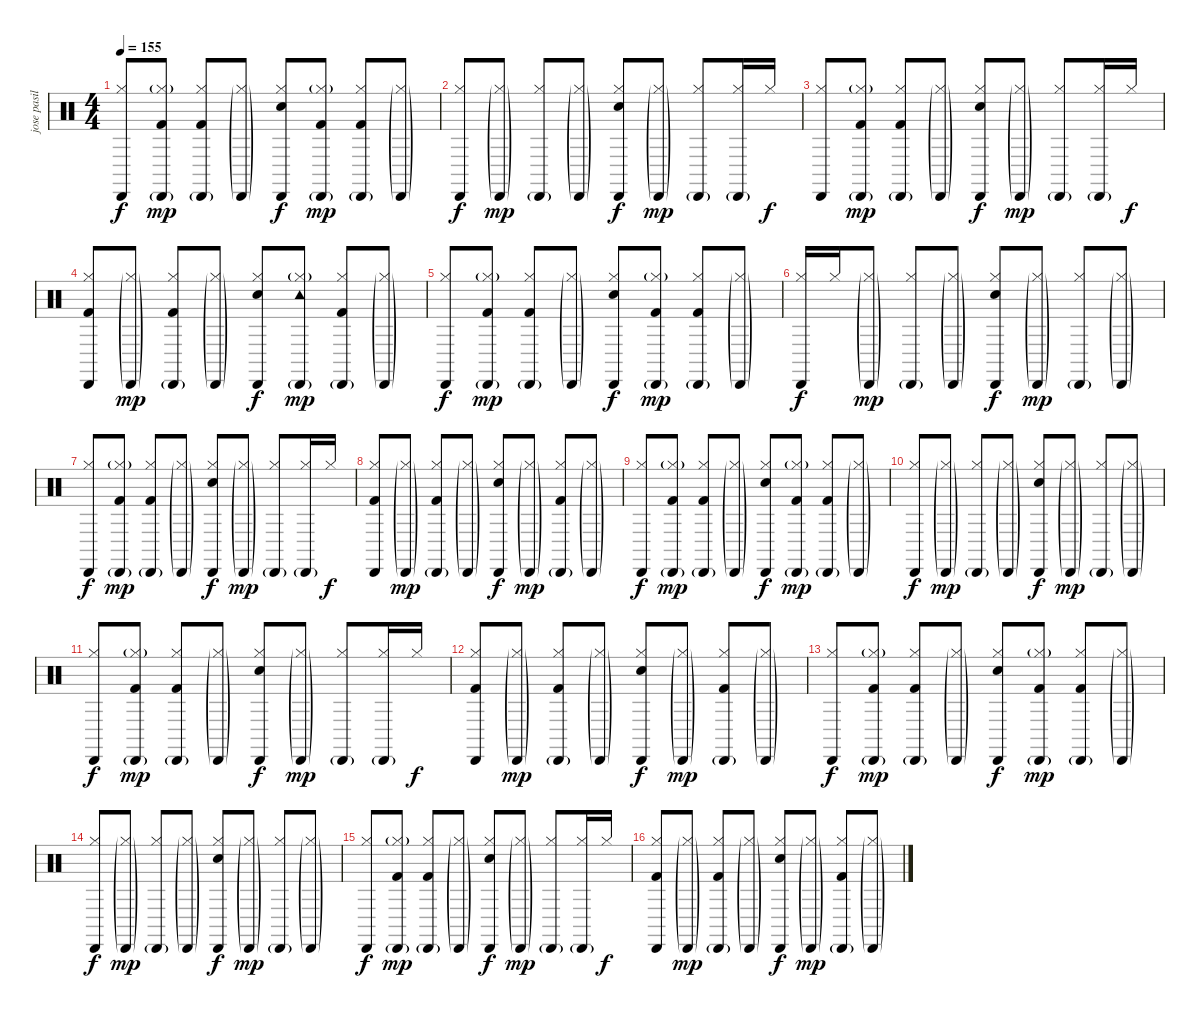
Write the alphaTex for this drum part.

\track ("jose pasillas" "jose pasil") {instrument percussion}
\staff {score}
\articulation defaults
\ts (4 4)
\tempo 155
\clef neutral
\ks c
("Cabasa (hit)" "Hi-Hat (closed)").8{dy f} ("Cabasa (hit)"{g} "Hi-Hat (closed)"{g} "Kick (hit) 2").8{dy mp} ("Cabasa (hit)"{g} "Hi-Hat (closed)" "Kick (hit) 2").8 ("Cabasa (hit)"{g} "Hi-Hat (closed)"{g}).8 ("Cabasa (hit)" "Hi-Hat (closed)" "Snare (hit) 2").8{dy f} ("Cabasa (hit)"{g} "Hi-Hat (closed)"{g} "Kick (hit) 2").8{dy mp} ("Cabasa (hit)"{g} "Hi-Hat (closed)" "Kick (hit) 2").8 ("Cabasa (hit)"{g} "Hi-Hat (closed)"{g}).8 |
("Cabasa (hit)" "Hi-Hat (closed)").8{dy f} ("Cabasa (hit)"{g} "Hi-Hat (closed)"{g}).8{dy mp} ("Cabasa (hit)"{g} "Hi-Hat (closed)").8 ("Cabasa (hit)"{g} "Hi-Hat (closed)"{g}).8 ("Cabasa (hit)" "Hi-Hat (closed)" "Snare (hit) 2").8{dy f} ("Cabasa (hit)"{g} "Hi-Hat (closed)"{g}).8{dy mp} ("Cabasa (hit)"{g} "Hi-Hat (closed)").8 ("Cabasa (hit)"{g} "Hi-Hat (closed)").16 "Hi-Hat (closed)".16{dy f} |
("Cabasa (hit)" "Hi-Hat (closed)").8 ("Cabasa (hit)"{g} "Hi-Hat (closed)"{g} "Kick (hit) 2").8{dy mp} ("Cabasa (hit)"{g} "Hi-Hat (closed)" "Kick (hit) 2").8 ("Cabasa (hit)"{g} "Hi-Hat (closed)"{g}).8 ("Cabasa (hit)" "Hi-Hat (closed)" "Snare (hit) 2").8{dy f} ("Cabasa (hit)"{g} "Hi-Hat (closed)"{g}).8{dy mp} ("Cabasa (hit)"{g} "Hi-Hat (closed)").8 ("Cabasa (hit)"{g} "Hi-Hat (closed)").16 "Hi-Hat (closed)".16{dy f} |
("Cabasa (hit)" "Hi-Hat (closed)" "Kick (hit) 2").8 ("Cabasa (hit)"{g} "Hi-Hat (closed)"{g}).8{dy mp} ("Cabasa (hit)"{g} "Hi-Hat (closed)" "Kick (hit) 2").8 ("Cabasa (hit)"{g} "Hi-Hat (closed)"{g}).8 ("Cabasa (hit)" "Hi-Hat (closed)" "Snare (hit) 2").8{dy f} ("Cabasa (hit)"{g} "Tambourine (hit)" "Hi-Hat (closed)"{g}).8{dy mp} ("Cabasa (hit)"{g} "Hi-Hat (closed)" "Kick (hit) 2").8 ("Cabasa (hit)"{g} "Hi-Hat (closed)"{g}).8 |
("Cabasa (hit)" "Hi-Hat (closed)").8{dy f} ("Cabasa (hit)"{g} "Hi-Hat (closed)"{g} "Kick (hit) 2").8{dy mp} ("Cabasa (hit)"{g} "Hi-Hat (closed)" "Kick (hit) 2").8 ("Cabasa (hit)"{g} "Hi-Hat (closed)"{g}).8 ("Cabasa (hit)" "Hi-Hat (closed)" "Snare (hit) 2").8{dy f} ("Cabasa (hit)"{g} "Hi-Hat (closed)"{g} "Kick (hit) 2").8{dy mp} ("Cabasa (hit)"{g} "Hi-Hat (closed)" "Kick (hit) 2").8 ("Cabasa (hit)"{g} "Hi-Hat (closed)"{g}).8 |
("Cabasa (hit)" "Hi-Hat (closed)").16{dy f} "Hi-Hat (closed)".16 ("Cabasa (hit)"{g} "Hi-Hat (closed)"{g}).8{dy mp} ("Cabasa (hit)"{g} "Hi-Hat (closed)").8 ("Cabasa (hit)"{g} "Hi-Hat (closed)"{g}).8 ("Cabasa (hit)" "Hi-Hat (closed)" "Snare (hit) 2").8{dy f} ("Cabasa (hit)"{g} "Hi-Hat (closed)"{g}).8{dy mp} ("Cabasa (hit)"{g} "Hi-Hat (closed)").8 ("Cabasa (hit)"{g} "Hi-Hat (closed)"{g}).8 |
("Cabasa (hit)" "Hi-Hat (closed)").8{dy f} ("Cabasa (hit)"{g} "Hi-Hat (closed)"{g} "Kick (hit) 2").8{dy mp} ("Cabasa (hit)"{g} "Hi-Hat (closed)" "Kick (hit) 2").8 ("Cabasa (hit)"{g} "Hi-Hat (closed)"{g}).8 ("Cabasa (hit)" "Hi-Hat (closed)" "Snare (hit) 2").8{dy f} ("Cabasa (hit)"{g} "Hi-Hat (closed)"{g}).8{dy mp} ("Cabasa (hit)"{g} "Hi-Hat (closed)").8 ("Cabasa (hit)"{g} "Hi-Hat (closed)").16 "Hi-Hat (closed)".16{dy f} |
("Cabasa (hit)" "Hi-Hat (closed)" "Kick (hit) 2").8 ("Cabasa (hit)"{g} "Hi-Hat (closed)"{g}).8{dy mp} ("Cabasa (hit)"{g} "Hi-Hat (closed)" "Kick (hit) 2").8 ("Cabasa (hit)"{g} "Hi-Hat (closed)"{g}).8 ("Cabasa (hit)" "Hi-Hat (closed)" "Snare (hit) 2").8{dy f} ("Cabasa (hit)"{g} "Hi-Hat (closed)"{g}).8{dy mp} ("Cabasa (hit)"{g} "Hi-Hat (closed)" "Kick (hit) 2").8 ("Cabasa (hit)"{g} "Hi-Hat (closed)"{g}).8 |
("Cabasa (hit)" "Hi-Hat (closed)").8{dy f} ("Cabasa (hit)"{g} "Hi-Hat (closed)"{g} "Kick (hit) 2").8{dy mp} ("Cabasa (hit)"{g} "Hi-Hat (closed)" "Kick (hit) 2").8 ("Cabasa (hit)"{g} "Hi-Hat (closed)"{g}).8 ("Cabasa (hit)" "Hi-Hat (closed)" "Snare (hit) 2").8{dy f} ("Cabasa (hit)"{g} "Hi-Hat (closed)"{g} "Kick (hit) 2").8{dy mp} ("Cabasa (hit)"{g} "Hi-Hat (closed)" "Kick (hit) 2").8 ("Cabasa (hit)"{g} "Hi-Hat (closed)"{g}).8 |
("Cabasa (hit)" "Hi-Hat (closed)").8{dy f} ("Cabasa (hit)"{g} "Hi-Hat (closed)"{g}).8{dy mp} ("Cabasa (hit)"{g} "Hi-Hat (closed)").8 ("Cabasa (hit)"{g} "Hi-Hat (closed)"{g}).8 ("Cabasa (hit)" "Hi-Hat (closed)" "Snare (hit) 2").8{dy f} ("Cabasa (hit)"{g} "Hi-Hat (closed)"{g}).8{dy mp} ("Cabasa (hit)"{g} "Hi-Hat (closed)").8 ("Cabasa (hit)"{g} "Hi-Hat (closed)"{g}).8 |
("Cabasa (hit)" "Hi-Hat (closed)").8{dy f} ("Cabasa (hit)"{g} "Hi-Hat (closed)"{g} "Kick (hit) 2").8{dy mp} ("Cabasa (hit)"{g} "Hi-Hat (closed)" "Kick (hit) 2").8 ("Cabasa (hit)"{g} "Hi-Hat (closed)"{g}).8 ("Cabasa (hit)" "Hi-Hat (closed)" "Snare (hit) 2").8{dy f} ("Cabasa (hit)"{g} "Hi-Hat (closed)"{g}).8{dy mp} ("Cabasa (hit)"{g} "Hi-Hat (closed)").8 ("Cabasa (hit)"{g} "Hi-Hat (closed)").16 "Hi-Hat (closed)".16{dy f} |
("Cabasa (hit)" "Hi-Hat (closed)" "Kick (hit) 2").8 ("Cabasa (hit)"{g} "Hi-Hat (closed)"{g}).8{dy mp} ("Cabasa (hit)"{g} "Hi-Hat (closed)" "Kick (hit) 2").8 ("Cabasa (hit)"{g} "Hi-Hat (closed)"{g}).8 ("Cabasa (hit)" "Hi-Hat (closed)" "Snare (hit) 2").8{dy f} ("Cabasa (hit)"{g} "Hi-Hat (closed)"{g}).8{dy mp} ("Cabasa (hit)"{g} "Hi-Hat (closed)" "Kick (hit) 2").8 ("Cabasa (hit)"{g} "Hi-Hat (closed)"{g}).8 |
("Cabasa (hit)" "Hi-Hat (closed)").8{dy f} ("Cabasa (hit)"{g} "Hi-Hat (closed)"{g} "Kick (hit) 2").8{dy mp} ("Cabasa (hit)"{g} "Hi-Hat (closed)" "Kick (hit) 2").8 ("Cabasa (hit)"{g} "Hi-Hat (closed)"{g}).8 ("Cabasa (hit)" "Hi-Hat (closed)" "Snare (hit) 2").8{dy f} ("Cabasa (hit)"{g} "Hi-Hat (closed)"{g} "Kick (hit) 2").8{dy mp} ("Cabasa (hit)"{g} "Hi-Hat (closed)" "Kick (hit) 2").8 ("Cabasa (hit)"{g} "Hi-Hat (closed)"{g}).8 |
("Cabasa (hit)" "Hi-Hat (closed)").8{dy f} ("Cabasa (hit)"{g} "Hi-Hat (closed)"{g}).8{dy mp} ("Cabasa (hit)"{g} "Hi-Hat (closed)").8 ("Cabasa (hit)"{g} "Hi-Hat (closed)"{g}).8 ("Cabasa (hit)" "Hi-Hat (closed)" "Snare (hit) 2").8{dy f} ("Cabasa (hit)"{g} "Hi-Hat (closed)"{g}).8{dy mp} ("Cabasa (hit)"{g} "Hi-Hat (closed)").8 ("Cabasa (hit)"{g} "Hi-Hat (closed)"{g}).8 |
("Cabasa (hit)" "Hi-Hat (closed)").8{dy f} ("Cabasa (hit)"{g} "Hi-Hat (closed)"{g} "Kick (hit) 2").8{dy mp} ("Cabasa (hit)"{g} "Hi-Hat (closed)" "Kick (hit) 2").8 ("Cabasa (hit)"{g} "Hi-Hat (closed)"{g}).8 ("Cabasa (hit)" "Hi-Hat (closed)" "Snare (hit) 2").8{dy f} ("Cabasa (hit)"{g} "Hi-Hat (closed)"{g}).8{dy mp} ("Cabasa (hit)"{g} "Hi-Hat (closed)").8 ("Cabasa (hit)"{g} "Hi-Hat (closed)").16 "Hi-Hat (closed)".16{dy f} |
("Cabasa (hit)" "Hi-Hat (closed)" "Kick (hit) 2").8 ("Cabasa (hit)"{g} "Hi-Hat (closed)"{g}).8{dy mp} ("Cabasa (hit)"{g} "Hi-Hat (closed)" "Kick (hit) 2").8 ("Cabasa (hit)"{g} "Hi-Hat (closed)"{g}).8 ("Cabasa (hit)" "Hi-Hat (closed)" "Snare (hit) 2").8{dy f} ("Cabasa (hit)"{g} "Hi-Hat (closed)"{g}).8{dy mp} ("Cabasa (hit)"{g} "Hi-Hat (closed)" "Kick (hit) 2").8 ("Cabasa (hit)"{g} "Hi-Hat (closed)"{g}).8
